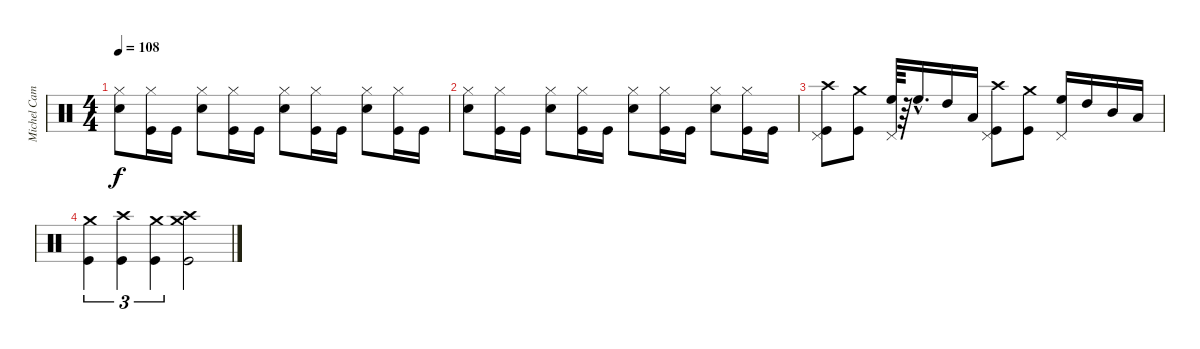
\track ("Michel Camiade" "Michel Cam") {instrument percussion}
\staff {score}
\articulation defaults
\ts (4 4)
\tempo 108
\clef neutral
\ks c
("Hi-Hat (closed)" "Snare (hit) 2").8{dy f} ("Hi-Hat (closed)" "Kick (hit)").16 "Kick (hit)".16 ("Hi-Hat (closed)" "Snare (hit) 2").8 ("Hi-Hat (closed)" "Kick (hit)").16 "Kick (hit)".16 ("Hi-Hat (closed)" "Snare (hit) 2").8 ("Hi-Hat (closed)" "Kick (hit)").16 "Kick (hit)".16 ("Hi-Hat (closed)" "Snare (hit) 2").8 ("Hi-Hat (closed)" "Kick (hit)").16 "Kick (hit)".16 |
("Hi-Hat (closed)" "Snare (hit) 2").8 ("Hi-Hat (closed)" "Kick (hit)").16 "Kick (hit)".16 ("Hi-Hat (closed)" "Snare (hit) 2").8 ("Hi-Hat (closed)" "Kick (hit)").16 "Kick (hit)".16 ("Hi-Hat (closed)" "Snare (hit) 2").8 ("Hi-Hat (closed)" "Kick (hit)").16 "Kick (hit)".16 ("Hi-Hat (closed)" "Snare (hit) 2").8 ("Hi-Hat (closed)" "Kick (hit)").16 "Kick (hit)".16 |
("Crash high (hit)" "Pedal Hi-Hat (hit)" "Kick (hit)").8 ("Crash medium (hit)" "Kick (hit)").8 ("High Floor Tom (hit)" "Pedal Hi-Hat (hit)").64 r.64 "High Floor Tom (hit)"{hac}.16{d} "High Tom (hit)".16 "Low Tom (hit)".16 ("Crash high (hit)" "Pedal Hi-Hat (hit)" "Kick (hit)").8 ("Crash medium (hit)" "Kick (hit)").8 ("High Floor Tom (hit)" "Pedal Hi-Hat (hit)").16 "High Tom (hit)".16 "Mid Tom (hit)".16 "Low Tom (hit)".16 |
("Crash medium (hit)" "Kick (hit)").4{tu (3 2)} ("Crash high (hit)" "Kick (hit)").4{tu (3 2)} ("Crash medium (hit)" "Kick (hit)").4{tu (3 2)} ("Crash medium (hit)" "Crash high (hit)" "Kick (hit)").2
